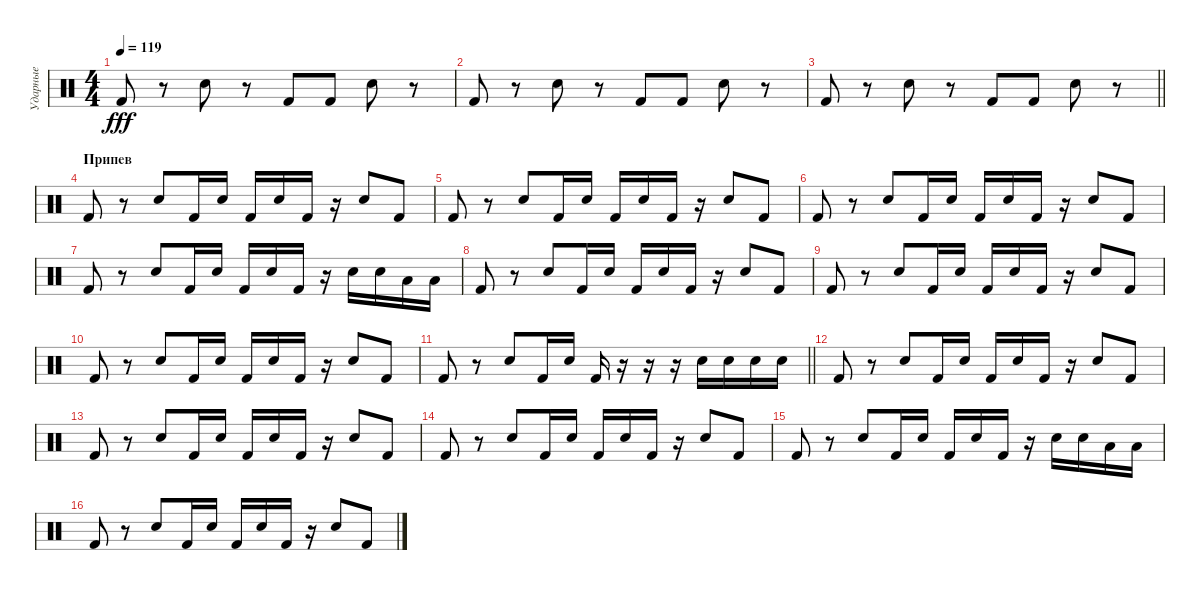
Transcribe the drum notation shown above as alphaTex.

\track ("Ударные" "Ударные") {instrument percussion}
\staff {score}
\articulation defaults
\ts (4 4)
\tempo 119
\clef neutral
\ks c "Kick (hit) 2".8{dy fff}
r.8 "Snare (hit) 2".8 r.8 "Kick (hit) 2".8 "Kick (hit) 2".8 "Snare (hit) 2".8 r.8 |
"Kick (hit) 2".8 r.8 "Snare (hit) 2".8 r.8 "Kick (hit) 2".8 "Kick (hit) 2".8 "Snare (hit) 2".8 r.8 |
\barLineRight lightlight "Kick (hit) 2".8
r.8 "Snare (hit) 2".8 r.8 "Kick (hit) 2".8 "Kick (hit) 2".8 "Snare (hit) 2".8 r.8 |
\section ("" "Припев")
"Kick (hit) 2".8 r.8 "Snare (hit) 2".8 "Kick (hit) 2".16 "Snare (hit) 2".16 "Kick (hit) 2".16 "Snare (hit) 2".16 "Kick (hit) 2".16 r.16 "Snare (hit) 2".8 "Kick (hit) 2".8 |
"Kick (hit) 2".8 r.8 "Snare (hit) 2".8 "Kick (hit) 2".16 "Snare (hit) 2".16 "Kick (hit) 2".16 "Snare (hit) 2".16 "Kick (hit) 2".16 r.16 "Snare (hit) 2".8 "Kick (hit) 2".8 |
"Kick (hit) 2".8 r.8 "Snare (hit) 2".8 "Kick (hit) 2".16 "Snare (hit) 2".16 "Kick (hit) 2".16 "Snare (hit) 2".16 "Kick (hit) 2".16 r.16 "Snare (hit) 2".8 "Kick (hit) 2".8 |
"Kick (hit) 2".8 r.8 "Snare (hit) 2".8 "Kick (hit) 2".16 "Snare (hit) 2".16 "Kick (hit) 2".16 "Snare (hit) 2".16 "Kick (hit) 2".16 r.16 "Snare (hit) 2".16 "Snare (hit) 2".16 "Low Tom (hit)".16 "Low Tom (hit)".16 |
"Kick (hit) 2".8 r.8 "Snare (hit) 2".8 "Kick (hit) 2".16 "Snare (hit) 2".16 "Kick (hit) 2".16 "Snare (hit) 2".16 "Kick (hit) 2".16 r.16 "Snare (hit) 2".8 "Kick (hit) 2".8 |
"Kick (hit) 2".8 r.8 "Snare (hit) 2".8 "Kick (hit) 2".16 "Snare (hit) 2".16 "Kick (hit) 2".16 "Snare (hit) 2".16 "Kick (hit) 2".16 r.16 "Snare (hit) 2".8 "Kick (hit) 2".8 |
"Kick (hit) 2".8 r.8 "Snare (hit) 2".8 "Kick (hit) 2".16 "Snare (hit) 2".16 "Kick (hit) 2".16 "Snare (hit) 2".16 "Kick (hit) 2".16 r.16 "Snare (hit) 2".8 "Kick (hit) 2".8 |
\barLineRight lightlight "Kick (hit) 2".8
r.8 "Snare (hit) 2".8 "Kick (hit) 2".16 "Snare (hit) 2".16 "Kick (hit) 2".16 r.16 r.16 r.16 "Snare (hit) 2".16 "Snare (hit) 2".16 "Snare (hit) 2".16 "Snare (hit) 2".16 |
"Kick (hit) 2".8 r.8 "Snare (hit) 2".8 "Kick (hit) 2".16 "Snare (hit) 2".16 "Kick (hit) 2".16 "Snare (hit) 2".16 "Kick (hit) 2".16 r.16 "Snare (hit) 2".8 "Kick (hit) 2".8 |
"Kick (hit) 2".8 r.8 "Snare (hit) 2".8 "Kick (hit) 2".16 "Snare (hit) 2".16 "Kick (hit) 2".16 "Snare (hit) 2".16 "Kick (hit) 2".16 r.16 "Snare (hit) 2".8 "Kick (hit) 2".8 |
"Kick (hit) 2".8 r.8 "Snare (hit) 2".8 "Kick (hit) 2".16 "Snare (hit) 2".16 "Kick (hit) 2".16 "Snare (hit) 2".16 "Kick (hit) 2".16 r.16 "Snare (hit) 2".8 "Kick (hit) 2".8 |
"Kick (hit) 2".8 r.8 "Snare (hit) 2".8 "Kick (hit) 2".16 "Snare (hit) 2".16 "Kick (hit) 2".16 "Snare (hit) 2".16 "Kick (hit) 2".16 r.16 "Snare (hit) 2".16 "Snare (hit) 2".16 "Low Tom (hit)".16 "Low Tom (hit)".16 |
"Kick (hit) 2".8 r.8 "Snare (hit) 2".8 "Kick (hit) 2".16 "Snare (hit) 2".16 "Kick (hit) 2".16 "Snare (hit) 2".16 "Kick (hit) 2".16 r.16 "Snare (hit) 2".8 "Kick (hit) 2".8
